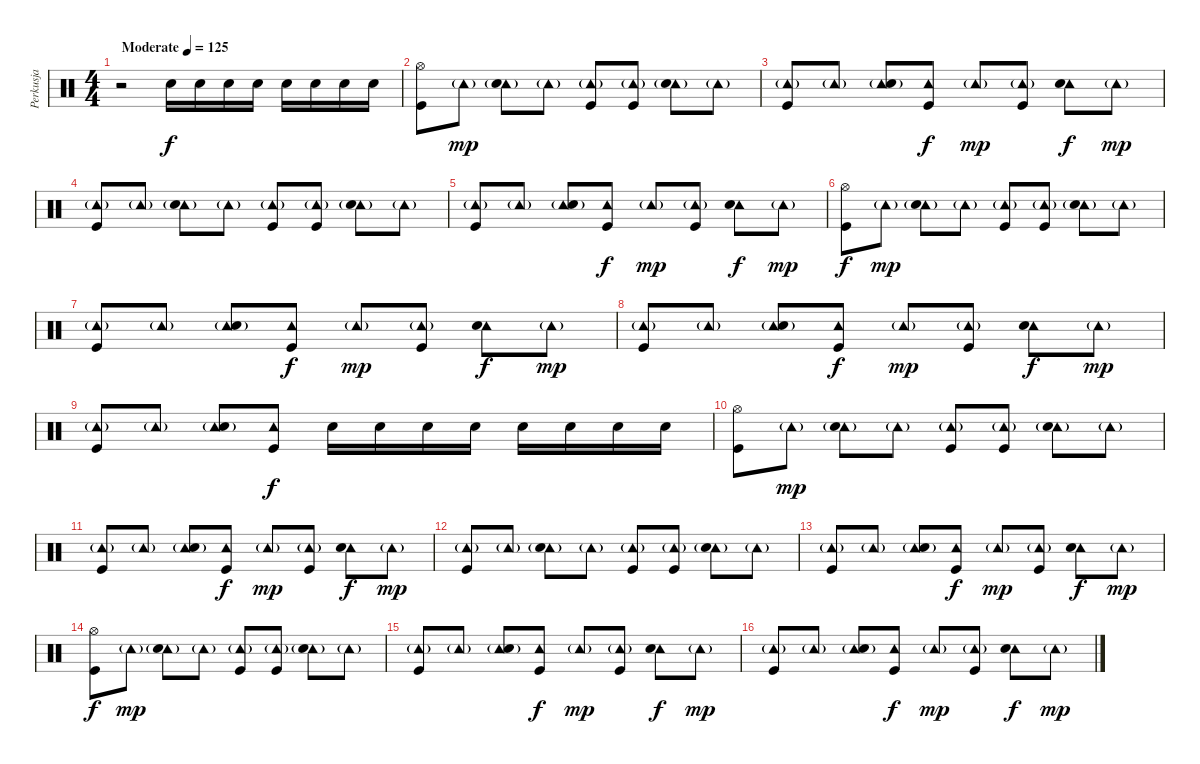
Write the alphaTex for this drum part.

\track ("Perkusja" "Perkusja") {instrument percussion}
\staff {score}
\articulation defaults
\ts (4 4)
\tempo (125 "Moderate")
\clef neutral
\ks c
r.2{dy f} "Snare (hit) 2".16 "Snare (hit) 2".16 "Snare (hit) 2".16 "Snare (hit) 2".16 "Snare (hit) 2".16 "Snare (hit) 2".16 "Snare (hit) 2".16 "Snare (hit) 2".16 |
("Hi-Hat (open)" "Kick (hit)").8 "Tambourine (hit)"{g}.8{dy mp} ("Tambourine (hit)"{g} "Snare (hit) 2").8 "Tambourine (hit)"{g}.8 ("Tambourine (hit)"{g} "Kick (hit)").8 ("Tambourine (hit)"{g} "Kick (hit)").8 ("Tambourine (hit)"{g} "Snare (hit) 2").8 "Tambourine (hit)"{g}.8 |
("Tambourine (hit)"{g} "Kick (hit)").8 "Tambourine (hit)"{g}.8 ("Tambourine (hit)"{g} "Snare (hit) 2").8 ("Tambourine (hit)" "Kick (hit)").8{dy f} "Tambourine (hit)"{g}.8{dy mp} ("Tambourine (hit)"{g} "Kick (hit)").8 ("Tambourine (hit)" "Snare (hit) 2").8{dy f} "Tambourine (hit)"{g}.8{dy mp} |
("Tambourine (hit)"{g} "Kick (hit)").8 "Tambourine (hit)"{g}.8 ("Tambourine (hit)"{g} "Snare (hit) 2").8 "Tambourine (hit)"{g}.8 ("Tambourine (hit)"{g} "Kick (hit)").8 ("Tambourine (hit)"{g} "Kick (hit)").8 ("Tambourine (hit)"{g} "Snare (hit) 2").8 "Tambourine (hit)"{g}.8 |
("Tambourine (hit)"{g} "Kick (hit)").8 "Tambourine (hit)"{g}.8 ("Tambourine (hit)"{g} "Snare (hit) 2").8 ("Tambourine (hit)" "Kick (hit)").8{dy f} "Tambourine (hit)"{g}.8{dy mp} ("Tambourine (hit)"{g} "Kick (hit)").8 ("Tambourine (hit)" "Snare (hit) 2").8{dy f} "Tambourine (hit)"{g}.8{dy mp} |
("Hi-Hat (open)" "Kick (hit)").8{dy f} "Tambourine (hit)"{g}.8{dy mp} ("Tambourine (hit)"{g} "Snare (hit) 2").8 "Tambourine (hit)"{g}.8 ("Tambourine (hit)"{g} "Kick (hit)").8 ("Tambourine (hit)"{g} "Kick (hit)").8 ("Tambourine (hit)"{g} "Snare (hit) 2").8 "Tambourine (hit)"{g}.8 |
("Tambourine (hit)"{g} "Kick (hit)").8 "Tambourine (hit)"{g}.8 ("Tambourine (hit)"{g} "Snare (hit) 2").8 ("Tambourine (hit)" "Kick (hit)").8{dy f} "Tambourine (hit)"{g}.8{dy mp} ("Tambourine (hit)"{g} "Kick (hit)").8 ("Tambourine (hit)" "Snare (hit) 2").8{dy f} "Tambourine (hit)"{g}.8{dy mp} |
("Tambourine (hit)"{g} "Kick (hit)").8 "Tambourine (hit)"{g}.8 ("Tambourine (hit)"{g} "Snare (hit) 2").8 ("Tambourine (hit)" "Kick (hit)").8{dy f} "Tambourine (hit)"{g}.8{dy mp} ("Tambourine (hit)"{g} "Kick (hit)").8 ("Tambourine (hit)" "Snare (hit) 2").8{dy f} "Tambourine (hit)"{g}.8{dy mp} |
("Tambourine (hit)"{g} "Kick (hit)").8 "Tambourine (hit)"{g}.8 ("Tambourine (hit)"{g} "Snare (hit) 2").8 ("Tambourine (hit)" "Kick (hit)").8{dy f} "Snare (hit) 2".16 "Snare (hit) 2".16 "Snare (hit) 2".16 "Snare (hit) 2".16 "Snare (hit) 2".16 "Snare (hit) 2".16 "Snare (hit) 2".16 "Snare (hit) 2".16 |
("Hi-Hat (open)" "Kick (hit)").8 "Tambourine (hit)"{g}.8{dy mp} ("Tambourine (hit)"{g} "Snare (hit) 2").8 "Tambourine (hit)"{g}.8 ("Tambourine (hit)"{g} "Kick (hit)").8 ("Tambourine (hit)"{g} "Kick (hit)").8 ("Tambourine (hit)"{g} "Snare (hit) 2").8 "Tambourine (hit)"{g}.8 |
("Tambourine (hit)"{g} "Kick (hit)").8 "Tambourine (hit)"{g}.8 ("Tambourine (hit)"{g} "Snare (hit) 2").8 ("Tambourine (hit)" "Kick (hit)").8{dy f} "Tambourine (hit)"{g}.8{dy mp} ("Tambourine (hit)"{g} "Kick (hit)").8 ("Tambourine (hit)" "Snare (hit) 2").8{dy f} "Tambourine (hit)"{g}.8{dy mp} |
("Tambourine (hit)"{g} "Kick (hit)").8 "Tambourine (hit)"{g}.8 ("Tambourine (hit)"{g} "Snare (hit) 2").8 "Tambourine (hit)"{g}.8 ("Tambourine (hit)"{g} "Kick (hit)").8 ("Tambourine (hit)"{g} "Kick (hit)").8 ("Tambourine (hit)"{g} "Snare (hit) 2").8 "Tambourine (hit)"{g}.8 |
("Tambourine (hit)"{g} "Kick (hit)").8 "Tambourine (hit)"{g}.8 ("Tambourine (hit)"{g} "Snare (hit) 2").8 ("Tambourine (hit)" "Kick (hit)").8{dy f} "Tambourine (hit)"{g}.8{dy mp} ("Tambourine (hit)"{g} "Kick (hit)").8 ("Tambourine (hit)" "Snare (hit) 2").8{dy f} "Tambourine (hit)"{g}.8{dy mp} |
("Hi-Hat (open)" "Kick (hit)").8{dy f} "Tambourine (hit)"{g}.8{dy mp} ("Tambourine (hit)"{g} "Snare (hit) 2").8 "Tambourine (hit)"{g}.8 ("Tambourine (hit)"{g} "Kick (hit)").8 ("Tambourine (hit)"{g} "Kick (hit)").8 ("Tambourine (hit)"{g} "Snare (hit) 2").8 "Tambourine (hit)"{g}.8 |
("Tambourine (hit)"{g} "Kick (hit)").8 "Tambourine (hit)"{g}.8 ("Tambourine (hit)"{g} "Snare (hit) 2").8 ("Tambourine (hit)" "Kick (hit)").8{dy f} "Tambourine (hit)"{g}.8{dy mp} ("Tambourine (hit)"{g} "Kick (hit)").8 ("Tambourine (hit)" "Snare (hit) 2").8{dy f} "Tambourine (hit)"{g}.8{dy mp} |
("Tambourine (hit)"{g} "Kick (hit)").8 "Tambourine (hit)"{g}.8 ("Tambourine (hit)"{g} "Snare (hit) 2").8 ("Tambourine (hit)" "Kick (hit)").8{dy f} "Tambourine (hit)"{g}.8{dy mp} ("Tambourine (hit)"{g} "Kick (hit)").8 ("Tambourine (hit)" "Snare (hit) 2").8{dy f} "Tambourine (hit)"{g}.8{dy mp}
